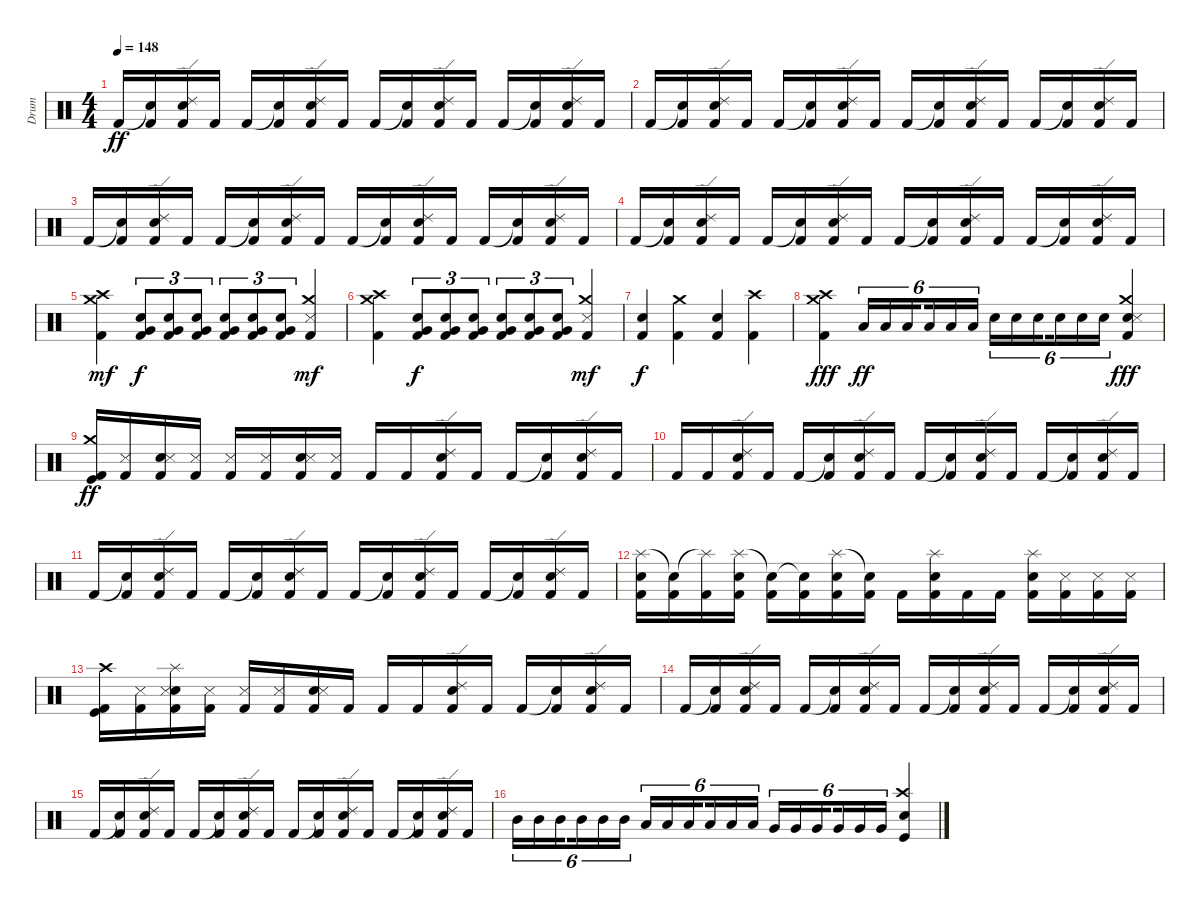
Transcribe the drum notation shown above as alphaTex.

\track ("Drum" "Drum") {instrument percussion}
\staff {score}
\articulation defaults
\ts (4 4)
\tempo 148
\clef neutral
\ks c "Kick (hit) 2".16{dy ff}
("Snare (hit)"{t} "Kick (hit) 2").16 ("Ride (edge) 2" "Snare (hit) 2" "Kick (hit) 2").16 "Kick (hit) 2".16 "Kick (hit) 2".16 ("Snare (hit)"{t} "Kick (hit) 2").16 ("Ride (edge) 2" "Snare (hit) 2" "Kick (hit) 2").16 "Kick (hit) 2".16 "Kick (hit) 2".16 ("Snare (hit)"{t} "Kick (hit) 2").16 ("Ride (edge) 2" "Snare (hit) 2" "Kick (hit) 2").16 "Kick (hit) 2".16 "Kick (hit) 2".16 ("Snare (hit)"{t} "Kick (hit) 2").16 ("Ride (edge) 2" "Snare (hit) 2" "Kick (hit) 2").16 "Kick (hit) 2".16 |
"Kick (hit) 2".16 ("Snare (hit)"{t} "Kick (hit) 2").16 ("Ride (edge) 2" "Snare (hit) 2" "Kick (hit) 2").16 "Kick (hit) 2".16 "Kick (hit) 2".16 ("Snare (hit)"{t} "Kick (hit) 2").16 ("Ride (edge) 2" "Snare (hit) 2" "Kick (hit) 2").16 "Kick (hit) 2".16 "Kick (hit) 2".16 ("Snare (hit)"{t} "Kick (hit) 2").16 ("Ride (edge) 2" "Snare (hit) 2" "Kick (hit) 2").16 "Kick (hit) 2".16 "Kick (hit) 2".16 ("Snare (hit)"{t} "Kick (hit) 2").16 ("Ride (edge) 2" "Snare (hit) 2" "Kick (hit) 2").16 "Kick (hit) 2".16 |
"Kick (hit) 2".16 ("Snare (hit)"{t} "Kick (hit) 2").16 ("Ride (edge) 2" "Snare (hit) 2" "Kick (hit) 2").16 "Kick (hit) 2".16 "Kick (hit) 2".16 ("Snare (hit)"{t} "Kick (hit) 2").16 ("Ride (edge) 2" "Snare (hit) 2" "Kick (hit) 2").16 "Kick (hit) 2".16 "Kick (hit) 2".16 ("Snare (hit)"{t} "Kick (hit) 2").16 ("Ride (edge) 2" "Snare (hit) 2" "Kick (hit) 2").16 "Kick (hit) 2".16 "Kick (hit) 2".16 ("Snare (hit)"{t} "Kick (hit) 2").16 ("Ride (edge) 2" "Snare (hit) 2" "Kick (hit) 2").16 "Kick (hit) 2".16 |
"Kick (hit) 2".16 ("Snare (hit)"{t} "Kick (hit) 2").16 ("Ride (edge) 2" "Snare (hit) 2" "Kick (hit) 2").16 "Kick (hit) 2".16 "Kick (hit) 2".16 ("Snare (hit)"{t} "Kick (hit) 2").16 ("Ride (edge) 2" "Snare (hit) 2" "Kick (hit) 2").16 "Kick (hit) 2".16 "Kick (hit) 2".16 ("Snare (hit)"{t} "Kick (hit) 2").16 ("Ride (edge) 2" "Snare (hit) 2" "Kick (hit) 2").16 "Kick (hit) 2".16 "Kick (hit) 2".16 ("Snare (hit)"{t} "Kick (hit) 2").16 ("Ride (edge) 2" "Snare (hit) 2" "Kick (hit) 2").16 "Kick (hit) 2".16 |
("Crash high (hit)" "Crash medium (hit)" "Kick (hit) 2").4{dy mf} ("Very Low Tom (hit)" "Snare (hit) 2" "Kick (hit) 2").8{tu (3 2) dy f} ("Very Low Tom (hit)" "Snare (hit) 2" "Kick (hit) 2").8{tu (3 2)} ("Very Low Tom (hit)" "Snare (hit) 2" "Kick (hit) 2").8{tu (3 2)} ("Very Low Tom (hit)" "Snare (hit) 2" "Kick (hit) 2").8{tu (3 2)} ("Very Low Tom (hit)" "Snare (hit) 2" "Kick (hit) 2").8{tu (3 2)} ("Very Low Tom (hit)" "Snare (hit) 2" "Kick (hit) 2").8{tu (3 2)} ("Crash medium (hit)" "Metronome (hit)" "Kick (hit) 2").4{dy mf} |
("Crash high (hit)" "Crash medium (hit)" "Kick (hit) 2").4 ("Very Low Tom (hit)" "Snare (hit) 2" "Kick (hit) 2").8{tu (3 2) dy f} ("Very Low Tom (hit)" "Snare (hit) 2" "Kick (hit) 2").8{tu (3 2)} ("Very Low Tom (hit)" "Snare (hit) 2" "Kick (hit) 2").8{tu (3 2)} ("Very Low Tom (hit)" "Snare (hit) 2" "Kick (hit) 2").8{tu (3 2)} ("Very Low Tom (hit)" "Snare (hit) 2" "Kick (hit) 2").8{tu (3 2)} ("Very Low Tom (hit)" "Snare (hit) 2" "Kick (hit) 2").8{tu (3 2)} ("Crash medium (hit)" "Metronome (hit)" "Kick (hit) 2").4{dy mf} |
("Snare (hit) 2" "Kick (hit) 2").4{dy f} ("Crash medium (hit)" "Kick (hit) 2").4 ("Snare (hit) 2" "Kick (hit) 2").4 ("Crash high (hit)" "Kick (hit) 2").4 |
("Crash medium (hit)" "Crash high (hit)" "Kick (hit) 2").4{dy fff} "Low Tom (hit)".16{tu (6 4) dy ff} "Low Tom (hit)".16{tu (6 4)} "Low Tom (hit)".16{tu (6 4) beam splitsecondary} "Low Tom (hit)".16{tu (6 4)} "Low Tom (hit)".16{tu (6 4)} "Low Tom (hit)".16{tu (6 4)} "Snare (hit) 2".16{tu (6 4)} "Snare (hit) 2".16{tu (6 4)} "Snare (hit) 2".16{tu (6 4) beam splitsecondary} "Snare (hit) 2".16{tu (6 4)} "Snare (hit) 2".16{tu (6 4)} "Snare (hit) 2".16{tu (6 4)} ("Crash medium (hit)" "Snare (hit) 2" "Snare (side stick) 3" "Kick (hit) 2").4{dy fff} |
("Crash medium (hit)" "Kick (hit)" "Kick (hit) 2").16{dy ff} ("Metronome (hit)" "Kick (hit) 2").16 ("Snare (hit) 2" "Metronome (hit)" "Kick (hit) 2").16 ("Metronome (hit)" "Kick (hit) 2").16 ("Metronome (hit)" "Kick (hit) 2").16 ("Metronome (hit)" "Kick (hit) 2").16 ("Snare (hit) 2" "Metronome (hit)" "Kick (hit) 2").16 ("Metronome (hit)" "Kick (hit) 2").16 "Kick (hit) 2".16 "Kick (hit) 2".16 ("Ride (edge) 2" "Snare (hit) 2" "Kick (hit) 2").16 "Kick (hit) 2".16 "Kick (hit) 2".16 ("Snare (hit)"{t} "Kick (hit) 2").16 ("Ride (edge) 2" "Snare (hit) 2" "Kick (hit) 2").16 "Kick (hit) 2".16 |
"Kick (hit) 2".16 "Kick (hit) 2".16 ("Ride (edge) 2" "Snare (hit) 2" "Kick (hit) 2").16 "Kick (hit) 2".16 "Kick (hit) 2".16 ("Snare (hit)"{t} "Kick (hit) 2").16 ("Ride (edge) 2" "Snare (hit) 2" "Kick (hit) 2").16 "Kick (hit) 2".16 "Kick (hit) 2".16 ("Snare (hit)"{t} "Kick (hit) 2").16 ("Ride (edge) 2" "Snare (hit) 2" "Kick (hit) 2").16 "Kick (hit) 2".16 "Kick (hit) 2".16 ("Snare (hit)"{t} "Kick (hit) 2").16 ("Ride (edge) 2" "Snare (hit) 2" "Kick (hit) 2").16 "Kick (hit) 2".16 |
"Kick (hit) 2".16 ("Snare (hit)"{t} "Kick (hit) 2").16 ("Ride (edge) 2" "Snare (hit) 2" "Kick (hit) 2").16 "Kick (hit) 2".16 "Kick (hit) 2".16 ("Snare (hit)"{t} "Kick (hit) 2").16 ("Ride (edge) 2" "Snare (hit) 2" "Kick (hit) 2").16 "Kick (hit) 2".16 "Kick (hit) 2".16 ("Snare (hit)"{t} "Kick (hit) 2").16 ("Ride (edge) 2" "Snare (hit) 2" "Kick (hit) 2").16 "Kick (hit) 2".16 "Kick (hit) 2".16 ("Snare (hit)"{t} "Kick (hit) 2").16 ("Ride (edge) 2" "Snare (hit) 2" "Kick (hit) 2").16 "Kick (hit) 2".16 |
("Splash (hit)" "Snare (hit) 2" "Kick (hit) 2").16 ("Snare (hit)"{t} "Kick (hit) 2").16 ("Splash (hit)"{t} "Kick (hit) 2").16 ("Splash (hit)" "Snare (hit) 2" "Kick (hit) 2").16 ("Snare (hit)"{t} "Kick (hit) 2").16 ("Snare (hit)"{t} "Kick (hit) 2").16 ("Splash (hit)" "Snare (hit) 2" "Kick (hit) 2").16 ("Snare (hit)"{t} "Kick (hit) 2").16 "Kick (hit) 2".16 ("Splash (hit)" "Snare (hit) 2" "Kick (hit) 2").16 "Kick (hit) 2".16 "Kick (hit) 2".16 ("Splash (hit)" "Snare (hit) 2" "Kick (hit) 2").16 ("Metronome (hit)" "Kick (hit) 2").16 ("Metronome (hit)" "Kick (hit) 2").16 ("Metronome (hit)" "Kick (hit) 2").16 |
("Crash high (hit)" "Kick (hit)" "Kick (hit) 2").16 ("Metronome (hit)" "Kick (hit) 2").16 ("Splash (hit)" "Snare (hit) 2" "Metronome (hit)" "Kick (hit) 2").16 ("Metronome (hit)" "Kick (hit) 2").16 ("Metronome (hit)" "Kick (hit) 2").16 ("Metronome (hit)" "Kick (hit) 2").16 ("Snare (hit) 2" "Metronome (hit)" "Kick (hit) 2").16 "Kick (hit) 2".16 "Kick (hit) 2".16 "Kick (hit) 2".16 ("Ride (edge) 2" "Snare (hit) 2" "Kick (hit) 2").16 "Kick (hit) 2".16 "Kick (hit) 2".16 ("Snare (hit)"{t} "Kick (hit) 2").16 ("Ride (edge) 2" "Snare (hit) 2" "Kick (hit) 2").16 "Kick (hit) 2".16 |
"Kick (hit) 2".16 ("Snare (hit)"{t} "Kick (hit) 2").16 ("Ride (edge) 2" "Snare (hit) 2" "Kick (hit) 2").16 "Kick (hit) 2".16 "Kick (hit) 2".16 ("Snare (hit)"{t} "Kick (hit) 2").16 ("Ride (edge) 2" "Snare (hit) 2" "Kick (hit) 2").16 "Kick (hit) 2".16 "Kick (hit) 2".16 ("Snare (hit)"{t} "Kick (hit) 2").16 ("Ride (edge) 2" "Snare (hit) 2" "Kick (hit) 2").16 "Kick (hit) 2".16 "Kick (hit) 2".16 ("Snare (hit)"{t} "Kick (hit) 2").16 ("Ride (edge) 2" "Snare (hit) 2" "Kick (hit) 2").16 "Kick (hit) 2".16 |
"Kick (hit) 2".16 ("Snare (hit)"{t} "Kick (hit) 2").16 ("Ride (edge) 2" "Snare (hit) 2" "Kick (hit) 2").16 "Kick (hit) 2".16 "Kick (hit) 2".16 ("Snare (hit)"{t} "Kick (hit) 2").16 ("Ride (edge) 2" "Snare (hit) 2" "Kick (hit) 2").16 "Kick (hit) 2".16 "Kick (hit) 2".16 ("Snare (hit)"{t} "Kick (hit) 2").16 ("Ride (edge) 2" "Snare (hit) 2" "Kick (hit) 2").16 "Kick (hit) 2".16 "Kick (hit) 2".16 ("Snare (hit)"{t} "Kick (hit) 2").16 ("Ride (edge) 2" "Snare (hit) 2" "Kick (hit) 2").16 "Kick (hit) 2".16 |
"Mid Tom (hit)".16{tu (6 4)} "Mid Tom (hit)".16{tu (6 4)} "Mid Tom (hit)".16{tu (6 4) beam splitsecondary} "Mid Tom (hit)".16{tu (6 4)} "Mid Tom (hit)".16{tu (6 4)} "Mid Tom (hit)".16{tu (6 4)} "Low Tom (hit)".16{tu (6 4)} "Low Tom (hit)".16{tu (6 4)} "Low Tom (hit)".16{tu (6 4) beam splitsecondary} "Low Tom (hit)".16{tu (6 4)} "Low Tom (hit)".16{tu (6 4)} "Low Tom (hit)".16{tu (6 4)} "Very Low Tom (hit)".16{tu (6 4)} "Very Low Tom (hit)".16{tu (6 4)} "Very Low Tom (hit)".16{tu (6 4) beam splitsecondary} "Very Low Tom (hit)".16{tu (6 4)} "Very Low Tom (hit)".16{tu (6 4)} "Very Low Tom (hit)".16{tu (6 4)} ("Crash high (hit)" "Snare (hit) 2" "Kick (hit)").4
